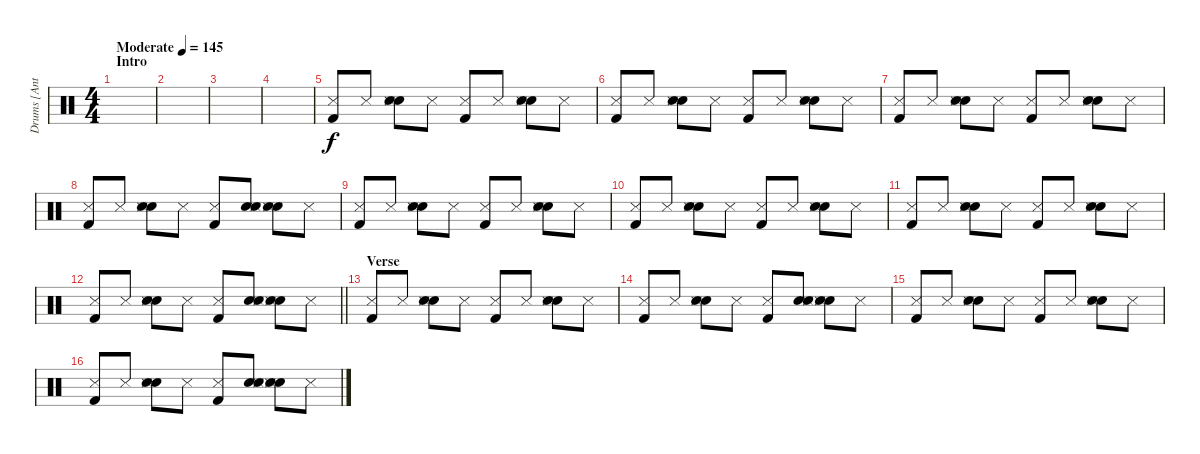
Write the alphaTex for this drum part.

\track ("Drums [Anthony Improgo]" "Drums [Ant") {instrument percussion}
\staff {score}
\articulation defaults
\ts (4 4)
\section ("" "Intro")
\tempo (145 "Moderate")
\clef neutral
\ks c
|
|
|
|
("Snare (side stick) 3" "Kick (hit) 2").8 "Snare (side stick) 3".8 ("Hand Clap (hit)" "Snare (hit) 2" "Snare (side stick) 3").8 "Snare (side stick) 3".8 ("Snare (side stick) 3" "Kick (hit) 2").8 "Snare (side stick) 3".8 ("Hand Clap (hit)" "Snare (hit) 2" "Snare (side stick) 3").8 "Snare (side stick) 3".8 |
("Snare (side stick) 3" "Kick (hit) 2").8 "Snare (side stick) 3".8 ("Hand Clap (hit)" "Snare (hit) 2" "Snare (side stick) 3").8 "Snare (side stick) 3".8 ("Snare (side stick) 3" "Kick (hit) 2").8 "Snare (side stick) 3".8 ("Hand Clap (hit)" "Snare (hit) 2" "Snare (side stick) 3").8 "Snare (side stick) 3".8 |
("Snare (side stick) 3" "Kick (hit) 2").8 "Snare (side stick) 3".8 ("Hand Clap (hit)" "Snare (hit) 2" "Snare (side stick) 3").8 "Snare (side stick) 3".8 ("Snare (side stick) 3" "Kick (hit) 2").8 "Snare (side stick) 3".8 ("Hand Clap (hit)" "Snare (hit) 2" "Snare (side stick) 3").8 "Snare (side stick) 3".8 |
("Snare (side stick) 3" "Kick (hit) 2").8 "Snare (side stick) 3".8 ("Hand Clap (hit)" "Snare (hit) 2" "Snare (side stick) 3").8 "Snare (side stick) 3".8 ("Snare (side stick) 3" "Kick (hit) 2").8 ("Hand Clap (hit)" "Snare (hit) 2" "Snare (side stick) 3").8 ("Hand Clap (hit)" "Snare (hit) 2" "Snare (side stick) 3").8 "Snare (side stick) 3".8 |
("Snare (side stick) 3" "Kick (hit) 2").8 "Snare (side stick) 3".8 ("Hand Clap (hit)" "Snare (hit) 2" "Snare (side stick) 3").8 "Snare (side stick) 3".8 ("Snare (side stick) 3" "Kick (hit) 2").8 "Snare (side stick) 3".8 ("Hand Clap (hit)" "Snare (hit) 2" "Snare (side stick) 3").8 "Snare (side stick) 3".8 |
("Snare (side stick) 3" "Kick (hit) 2").8 "Snare (side stick) 3".8 ("Hand Clap (hit)" "Snare (hit) 2" "Snare (side stick) 3").8 "Snare (side stick) 3".8 ("Snare (side stick) 3" "Kick (hit) 2").8 "Snare (side stick) 3".8 ("Hand Clap (hit)" "Snare (hit) 2" "Snare (side stick) 3").8 "Snare (side stick) 3".8 |
("Snare (side stick) 3" "Kick (hit) 2").8 "Snare (side stick) 3".8 ("Hand Clap (hit)" "Snare (hit) 2" "Snare (side stick) 3").8 "Snare (side stick) 3".8 ("Snare (side stick) 3" "Kick (hit) 2").8 "Snare (side stick) 3".8 ("Hand Clap (hit)" "Snare (hit) 2" "Snare (side stick) 3").8 "Snare (side stick) 3".8 |
\barLineRight lightlight
("Snare (side stick) 3" "Kick (hit) 2").8 "Snare (side stick) 3".8 ("Hand Clap (hit)" "Snare (hit) 2" "Snare (side stick) 3").8 "Snare (side stick) 3".8 ("Snare (side stick) 3" "Kick (hit) 2").8 ("Hand Clap (hit)" "Snare (hit) 2" "Snare (side stick) 3").8 ("Hand Clap (hit)" "Snare (hit) 2" "Snare (side stick) 3").8 "Snare (side stick) 3".8 |
\section ("" "Verse")
("Snare (side stick) 3" "Kick (hit) 2").8 "Snare (side stick) 3".8 ("Hand Clap (hit)" "Snare (hit) 2" "Snare (side stick) 3").8 "Snare (side stick) 3".8 ("Snare (side stick) 3" "Kick (hit) 2").8 "Snare (side stick) 3".8 ("Hand Clap (hit)" "Snare (hit) 2" "Snare (side stick) 3").8 "Snare (side stick) 3".8 |
("Snare (side stick) 3" "Kick (hit) 2").8 "Snare (side stick) 3".8 ("Hand Clap (hit)" "Snare (hit) 2" "Snare (side stick) 3").8 "Snare (side stick) 3".8 ("Snare (side stick) 3" "Kick (hit) 2").8 ("Hand Clap (hit)" "Snare (hit) 2" "Snare (side stick) 3").8 ("Hand Clap (hit)" "Snare (hit) 2" "Snare (side stick) 3").8 "Snare (side stick) 3".8 |
("Snare (side stick) 3" "Kick (hit) 2").8 "Snare (side stick) 3".8 ("Hand Clap (hit)" "Snare (hit) 2" "Snare (side stick) 3").8 "Snare (side stick) 3".8 ("Snare (side stick) 3" "Kick (hit) 2").8 "Snare (side stick) 3".8 ("Hand Clap (hit)" "Snare (hit) 2" "Snare (side stick) 3").8 "Snare (side stick) 3".8 |
("Snare (side stick) 3" "Kick (hit) 2").8 "Snare (side stick) 3".8 ("Hand Clap (hit)" "Snare (hit) 2" "Snare (side stick) 3").8 "Snare (side stick) 3".8 ("Snare (side stick) 3" "Kick (hit) 2").8 ("Hand Clap (hit)" "Snare (hit) 2" "Snare (side stick) 3").8 ("Hand Clap (hit)" "Snare (hit) 2" "Snare (side stick) 3").8 "Snare (side stick) 3".8
